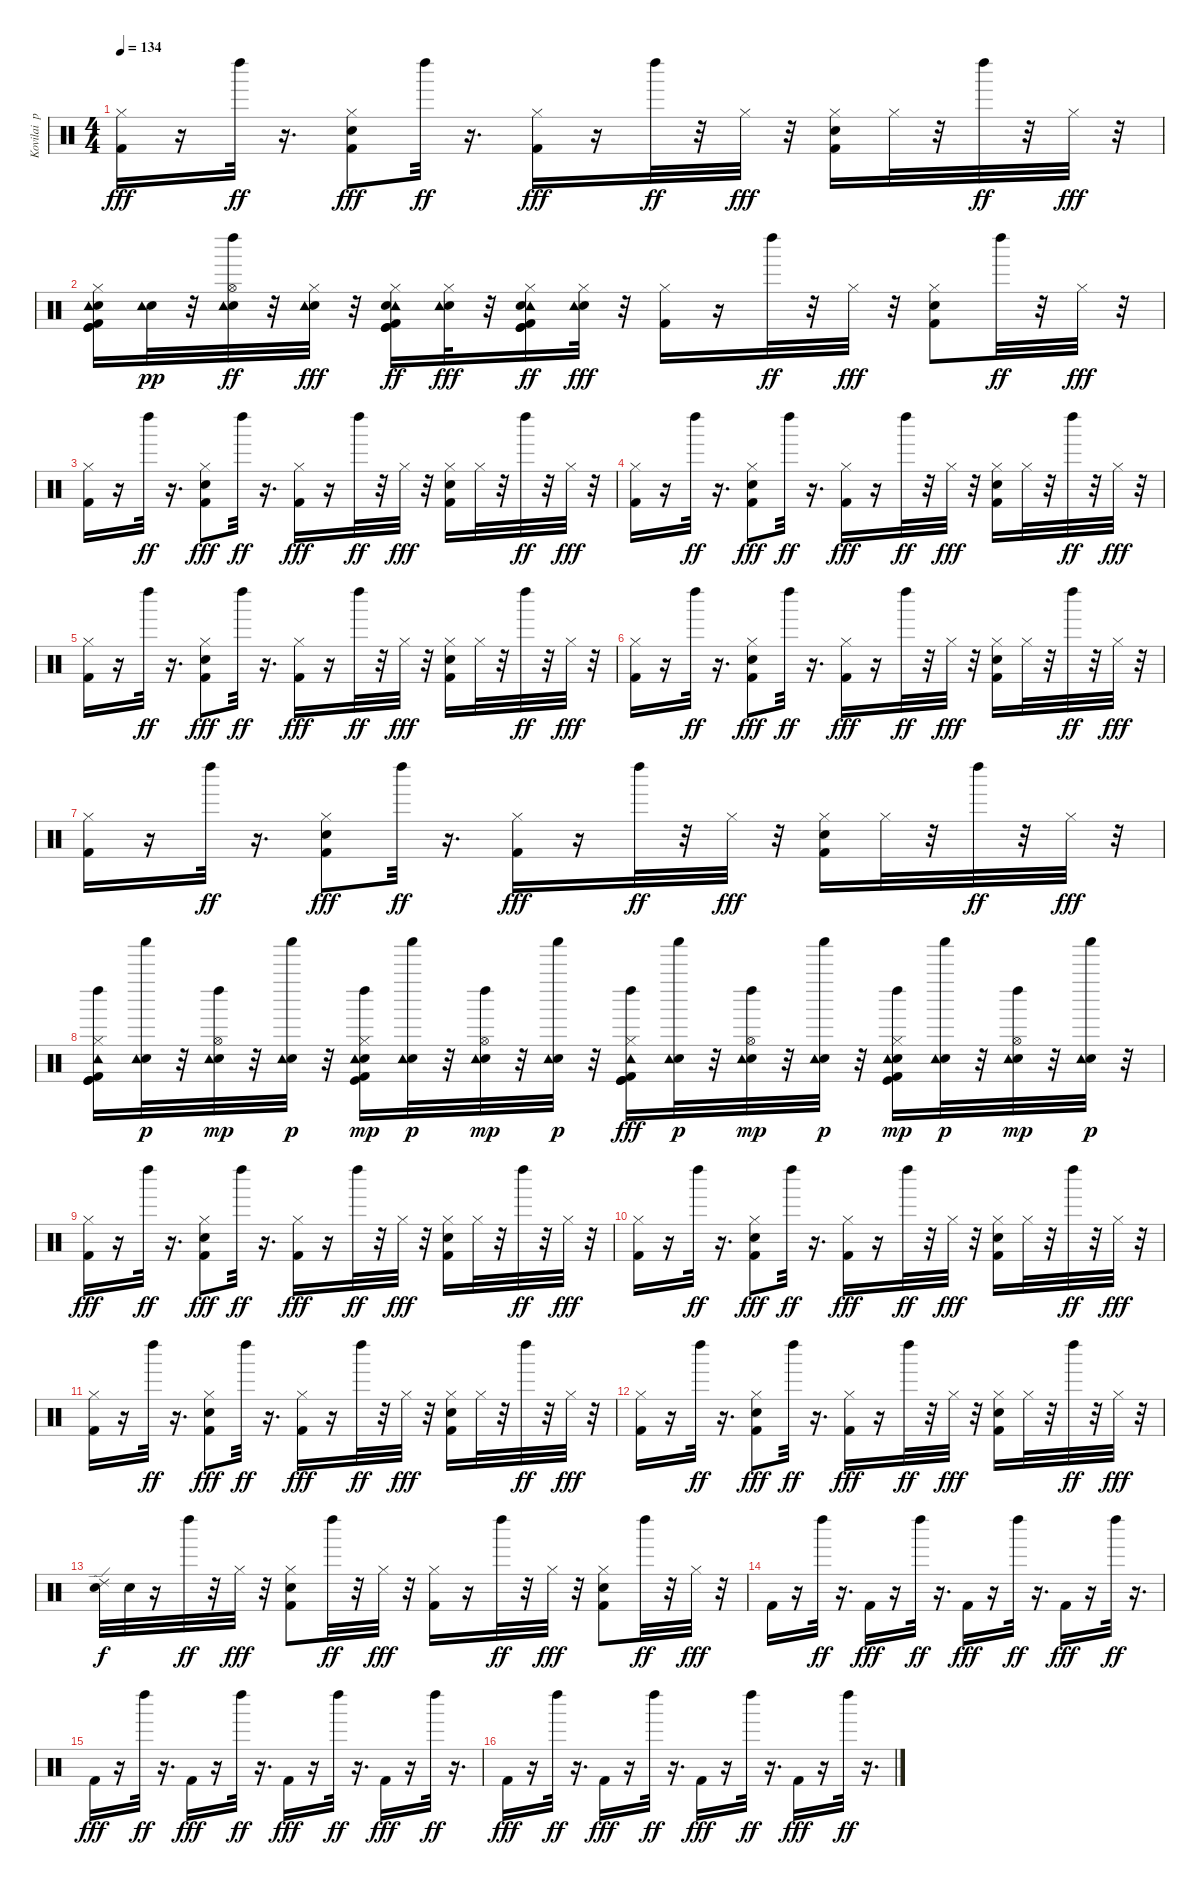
\track ("Kovilai  po tihonechky:" "Kovilai  p") {instrument percussion}
\staff {score}
\articulation defaults
\ts (4 4)
\tempo 134
\clef neutral
\ks c
("Hi-Hat (closed)" "Kick (hit) 2").16{dy fff} r.16 "Left Maraca (hit)".32{dy ff} r.16{d} ("Snare (hit) 2" "Hi-Hat (closed)" "Kick (hit) 2").8{dy fff} "Left Maraca (hit)".32{dy ff} r.16{d} ("Hi-Hat (closed)" "Kick (hit) 2").16{dy fff} r.16 "Left Maraca (hit)".32{dy ff} r.32 "Hi-Hat (closed)".32{dy fff} r.32 ("Hi-Hat (closed)" "Snare (hit) 2" "Kick (hit) 2").16 "Hi-Hat (closed)".32 r.32 "Left Maraca (hit)".32{dy ff} r.32 "Hi-Hat (closed)".32{dy fff} r.32 |
("Kick (hit)" "Kick (hit) 2" "Electric Snare (hit)" "Tambourine (hit)" "Hi-Hat (closed)" "Kick (hit)").16 ("Electric Snare (hit)" "Tambourine (hit)").32{dy pp} r.32 ("Electric Snare (hit)" "Tambourine (hit)" "Hi-Hat (open)" "Left Maraca (hit)").32{dy ff} r.32 ("Electric Snare (hit)" "Tambourine (hit)" "Hi-Hat (closed)").32{dy fff} r.32 ("Kick (hit)" "Kick (hit) 2" "Tambourine (hit)" "Hi-Hat (closed)" "Kick (hit)" "Snare (hit) 2").16{dy ff} ("Electric Snare (hit)" "Tambourine (hit)" "Hi-Hat (closed)").32{dy fff} r.32 ("Kick (hit)" "Kick (hit) 2" "Tambourine (hit)" "Hi-Hat (closed)" "Kick (hit)" "Snare (hit) 2").16{dy ff} ("Electric Snare (hit)" "Tambourine (hit)" "Hi-Hat (closed)").32{dy fff} r.32 ("Hi-Hat (closed)" "Kick (hit) 2").16 r.16 "Left Maraca (hit)".32{dy ff} r.32 "Hi-Hat (closed)".32{dy fff} r.32 ("Snare (hit) 2" "Hi-Hat (closed)" "Kick (hit) 2").8 "Left Maraca (hit)".32{dy ff} r.32 "Hi-Hat (closed)".32{dy fff} r.32 |
("Hi-Hat (closed)" "Kick (hit) 2").16 r.16 "Left Maraca (hit)".32{dy ff} r.16{d} ("Snare (hit) 2" "Hi-Hat (closed)" "Kick (hit) 2").8{dy fff} "Left Maraca (hit)".32{dy ff} r.16{d} ("Hi-Hat (closed)" "Kick (hit) 2").16{dy fff} r.16 "Left Maraca (hit)".32{dy ff} r.32 "Hi-Hat (closed)".32{dy fff} r.32 ("Hi-Hat (closed)" "Snare (hit) 2" "Kick (hit) 2").16 "Hi-Hat (closed)".32 r.32 "Left Maraca (hit)".32{dy ff} r.32 "Hi-Hat (closed)".32{dy fff} r.32 |
("Hi-Hat (closed)" "Kick (hit) 2").16 r.16 "Left Maraca (hit)".32{dy ff} r.16{d} ("Snare (hit) 2" "Hi-Hat (closed)" "Kick (hit) 2").8{dy fff} "Left Maraca (hit)".32{dy ff} r.16{d} ("Hi-Hat (closed)" "Kick (hit) 2").16{dy fff} r.16 "Left Maraca (hit)".32{dy ff} r.32 "Hi-Hat (closed)".32{dy fff} r.32 ("Hi-Hat (closed)" "Snare (hit) 2" "Kick (hit) 2").16 "Hi-Hat (closed)".32 r.32 "Left Maraca (hit)".32{dy ff} r.32 "Hi-Hat (closed)".32{dy fff} r.32 |
("Hi-Hat (closed)" "Kick (hit) 2").16 r.16 "Left Maraca (hit)".32{dy ff} r.16{d} ("Snare (hit) 2" "Hi-Hat (closed)" "Kick (hit) 2").8{dy fff} "Left Maraca (hit)".32{dy ff} r.16{d} ("Hi-Hat (closed)" "Kick (hit) 2").16{dy fff} r.16 "Left Maraca (hit)".32{dy ff} r.32 "Hi-Hat (closed)".32{dy fff} r.32 ("Hi-Hat (closed)" "Snare (hit) 2" "Kick (hit) 2").16 "Hi-Hat (closed)".32 r.32 "Left Maraca (hit)".32{dy ff} r.32 "Hi-Hat (closed)".32{dy fff} r.32 |
("Hi-Hat (closed)" "Kick (hit) 2").16 r.16 "Left Maraca (hit)".32{dy ff} r.16{d} ("Snare (hit) 2" "Hi-Hat (closed)" "Kick (hit) 2").8{dy fff} "Left Maraca (hit)".32{dy ff} r.16{d} ("Hi-Hat (closed)" "Kick (hit) 2").16{dy fff} r.16 "Left Maraca (hit)".32{dy ff} r.32 "Hi-Hat (closed)".32{dy fff} r.32 ("Hi-Hat (closed)" "Snare (hit) 2" "Kick (hit) 2").16 "Hi-Hat (closed)".32 r.32 "Left Maraca (hit)".32{dy ff} r.32 "Hi-Hat (closed)".32{dy fff} r.32 |
("Hi-Hat (closed)" "Kick (hit) 2").16 r.16 "Left Maraca (hit)".32{dy ff} r.16{d} ("Snare (hit) 2" "Hi-Hat (closed)" "Kick (hit) 2").8{dy fff} "Left Maraca (hit)".32{dy ff} r.16{d} ("Hi-Hat (closed)" "Kick (hit) 2").16{dy fff} r.16 "Left Maraca (hit)".32{dy ff} r.32 "Hi-Hat (closed)".32{dy fff} r.32 ("Hi-Hat (closed)" "Snare (hit) 2" "Kick (hit) 2").16 "Hi-Hat (closed)".32 r.32 "Left Maraca (hit)".32{dy ff} r.32 "Hi-Hat (closed)".32{dy fff} r.32 |
("Kick (hit)" "Kick (hit) 2" "Tambourine (hit)" "Left Maraca (hit)" "Hi-Hat (closed)" "Kick (hit)").16 ("Electric Snare (hit)" "Tambourine (hit)" "Shaker (hit)").32{dy p} r.32 ("Electric Snare (hit)" "Tambourine (hit)" "Left Maraca (hit)" "Hi-Hat (open)").32{dy mp} r.32 ("Electric Snare (hit)" "Tambourine (hit)" "Shaker (hit)").32{dy p} r.32 ("Kick (hit)" "Kick (hit) 2" "Electric Snare (hit)" "Tambourine (hit)" "Left Maraca (hit)" "Hi-Hat (closed)").16{dy mp} ("Electric Snare (hit)" "Tambourine (hit)" "Shaker (hit)").32{dy p} r.32 ("Electric Snare (hit)" "Tambourine (hit)" "Left Maraca (hit)" "Hi-Hat (open)").32{dy mp} r.32 ("Electric Snare (hit)" "Tambourine (hit)" "Shaker (hit)").32{dy p} r.32 ("Kick (hit)" "Kick (hit) 2" "Tambourine (hit)" "Left Maraca (hit)" "Hi-Hat (closed)" "Kick (hit)").16{dy fff} ("Electric Snare (hit)" "Tambourine (hit)" "Shaker (hit)").32{dy p} r.32 ("Electric Snare (hit)" "Tambourine (hit)" "Left Maraca (hit)" "Hi-Hat (open)").32{dy mp} r.32 ("Electric Snare (hit)" "Tambourine (hit)" "Shaker (hit)").32{dy p} r.32 ("Kick (hit)" "Kick (hit) 2" "Electric Snare (hit)" "Tambourine (hit)" "Left Maraca (hit)" "Hi-Hat (closed)").16{dy mp} ("Electric Snare (hit)" "Tambourine (hit)" "Shaker (hit)").32{dy p} r.32 ("Electric Snare (hit)" "Tambourine (hit)" "Left Maraca (hit)" "Hi-Hat (open)").32{dy mp} r.32 ("Electric Snare (hit)" "Tambourine (hit)" "Shaker (hit)").32{dy p} r.32 |
("Hi-Hat (closed)" "Kick (hit) 2").16{dy fff} r.16 "Left Maraca (hit)".32{dy ff} r.16{d} ("Snare (hit) 2" "Hi-Hat (closed)" "Kick (hit) 2").8{dy fff} "Left Maraca (hit)".32{dy ff} r.16{d} ("Hi-Hat (closed)" "Kick (hit) 2").16{dy fff} r.16 "Left Maraca (hit)".32{dy ff} r.32 "Hi-Hat (closed)".32{dy fff} r.32 ("Hi-Hat (closed)" "Snare (hit) 2" "Kick (hit) 2").16 "Hi-Hat (closed)".32 r.32 "Left Maraca (hit)".32{dy ff} r.32 "Hi-Hat (closed)".32{dy fff} r.32 |
("Hi-Hat (closed)" "Kick (hit) 2").16 r.16 "Left Maraca (hit)".32{dy ff} r.16{d} ("Snare (hit) 2" "Hi-Hat (closed)" "Kick (hit) 2").8{dy fff} "Left Maraca (hit)".32{dy ff} r.16{d} ("Hi-Hat (closed)" "Kick (hit) 2").16{dy fff} r.16 "Left Maraca (hit)".32{dy ff} r.32 "Hi-Hat (closed)".32{dy fff} r.32 ("Hi-Hat (closed)" "Snare (hit) 2" "Kick (hit) 2").16 "Hi-Hat (closed)".32 r.32 "Left Maraca (hit)".32{dy ff} r.32 "Hi-Hat (closed)".32{dy fff} r.32 |
("Hi-Hat (closed)" "Kick (hit) 2").16 r.16 "Left Maraca (hit)".32{dy ff} r.16{d} ("Snare (hit) 2" "Hi-Hat (closed)" "Kick (hit) 2").8{dy fff} "Left Maraca (hit)".32{dy ff} r.16{d} ("Hi-Hat (closed)" "Kick (hit) 2").16{dy fff} r.16 "Left Maraca (hit)".32{dy ff} r.32 "Hi-Hat (closed)".32{dy fff} r.32 ("Hi-Hat (closed)" "Snare (hit) 2" "Kick (hit) 2").16 "Hi-Hat (closed)".32 r.32 "Left Maraca (hit)".32{dy ff} r.32 "Hi-Hat (closed)".32{dy fff} r.32 |
("Hi-Hat (closed)" "Kick (hit) 2").16 r.16 "Left Maraca (hit)".32{dy ff} r.16{d} ("Snare (hit) 2" "Hi-Hat (closed)" "Kick (hit) 2").8{dy fff} "Left Maraca (hit)".32{dy ff} r.16{d} ("Hi-Hat (closed)" "Kick (hit) 2").16{dy fff} r.16 "Left Maraca (hit)".32{dy ff} r.32 "Hi-Hat (closed)".32{dy fff} r.32 ("Hi-Hat (closed)" "Snare (hit) 2" "Kick (hit) 2").16 "Hi-Hat (closed)".32 r.32 "Left Maraca (hit)".32{dy ff} r.32 "Hi-Hat (closed)".32{dy fff} r.32 |
("Ride (edge) 2" "Snare (hit) 2").32{dy f} "Snare (hit) 2".32 r.16 "Left Maraca (hit)".32{dy ff} r.32 "Hi-Hat (closed)".32{dy fff} r.32 ("Snare (hit) 2" "Hi-Hat (closed)" "Kick (hit) 2").8 "Left Maraca (hit)".32{dy ff} r.32 "Hi-Hat (closed)".32{dy fff} r.32 ("Hi-Hat (closed)" "Kick (hit) 2").16 r.16 "Left Maraca (hit)".32{dy ff} r.32 "Hi-Hat (closed)".32{dy fff} r.32 ("Snare (hit) 2" "Hi-Hat (closed)" "Kick (hit) 2").8 "Left Maraca (hit)".32{dy ff} r.32 "Hi-Hat (closed)".32{dy fff} r.32 |
"Kick (hit) 2".16 r.16 "Left Maraca (hit)".32{dy ff} r.16{d} "Kick (hit) 2".16{dy fff} r.16 "Left Maraca (hit)".32{dy ff} r.16{d} "Kick (hit) 2".16{dy fff} r.16 "Left Maraca (hit)".32{dy ff} r.16{d} "Kick (hit) 2".16{dy fff} r.16 "Left Maraca (hit)".32{dy ff} r.16{d} |
"Kick (hit) 2".16{dy fff} r.16 "Left Maraca (hit)".32{dy ff} r.16{d} "Kick (hit) 2".16{dy fff} r.16 "Left Maraca (hit)".32{dy ff} r.16{d} "Kick (hit) 2".16{dy fff} r.16 "Left Maraca (hit)".32{dy ff} r.16{d} "Kick (hit) 2".16{dy fff} r.16 "Left Maraca (hit)".32{dy ff} r.16{d} |
"Kick (hit) 2".16{dy fff} r.16 "Left Maraca (hit)".32{dy ff} r.16{d} "Kick (hit) 2".16{dy fff} r.16 "Left Maraca (hit)".32{dy ff} r.16{d} "Kick (hit) 2".16{dy fff} r.16 "Left Maraca (hit)".32{dy ff} r.16{d} "Kick (hit) 2".16{dy fff} r.16 "Left Maraca (hit)".32{dy ff} r.16{d}
